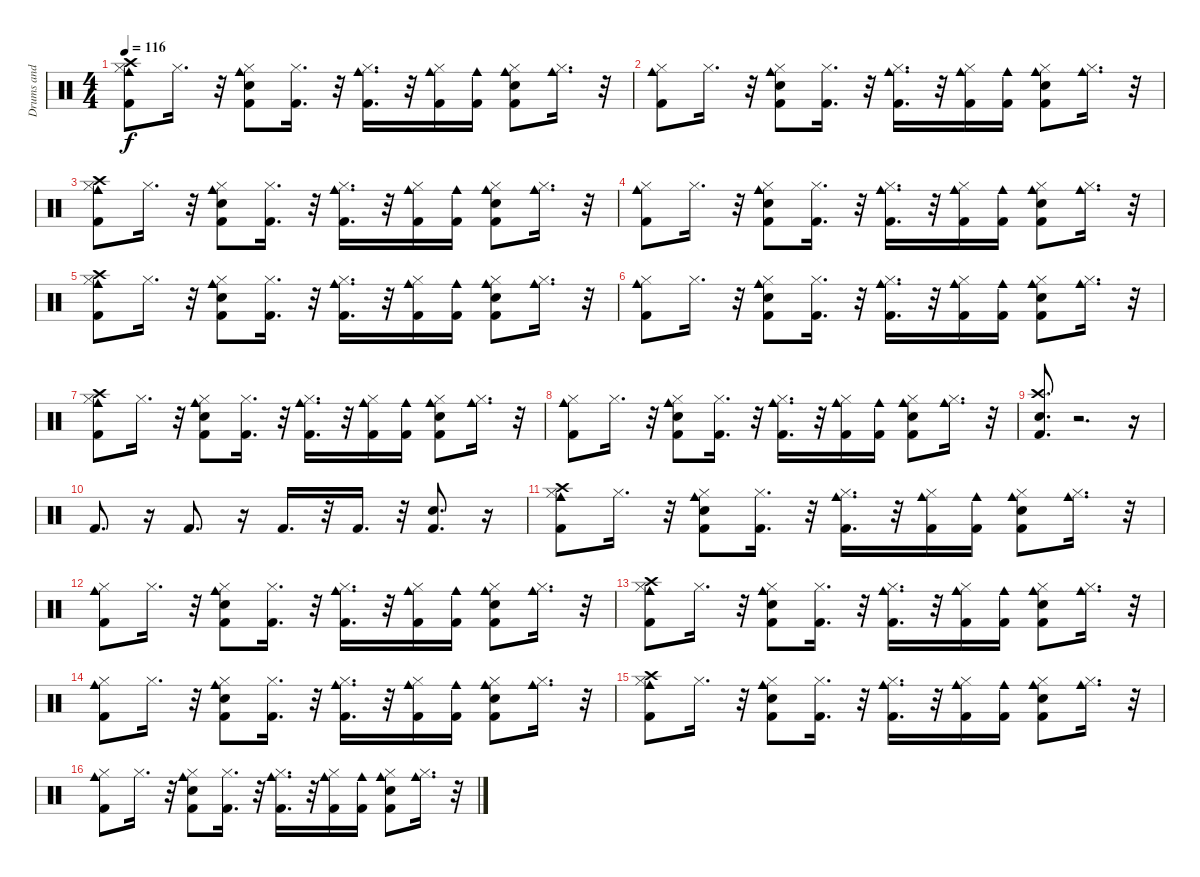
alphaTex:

\track ("Drums and Cowbell" "Drums and ") {instrument percussion}
\staff {score}
\articulation defaults
\ts (4 4)
\tempo 116
\clef neutral
\ks c
("Kick (hit) 2" "Hi-Hat (closed)" "Crash high (hit)" "Cowbell medium (hit)").8{dy f} "Hi-Hat (closed)".16{d} r.32 ("Snare (hit) 2" "Kick (hit) 2" "Hi-Hat (closed)" "Cowbell medium (hit)").8 ("Kick (hit) 2" "Hi-Hat (closed)").16{d} r.32 ("Hi-Hat (closed)" "Kick (hit) 2" "Cowbell medium (hit)").16{d} r.32 ("Kick (hit) 2" "Hi-Hat (closed)" "Cowbell medium (hit)").16 ("Kick (hit) 2" "Cowbell medium (hit)").16 ("Kick (hit) 2" "Snare (hit) 2" "Hi-Hat (closed)" "Cowbell medium (hit)").8 ("Hi-Hat (closed)" "Cowbell medium (hit)").16{d} r.32 |
("Kick (hit) 2" "Hi-Hat (closed)" "Cowbell medium (hit)").8 "Hi-Hat (closed)".16{d} r.32 ("Snare (hit) 2" "Kick (hit) 2" "Hi-Hat (closed)" "Cowbell medium (hit)").8 ("Kick (hit) 2" "Hi-Hat (closed)").16{d} r.32 ("Hi-Hat (closed)" "Kick (hit) 2" "Cowbell medium (hit)").16{d} r.32 ("Kick (hit) 2" "Hi-Hat (closed)" "Cowbell medium (hit)").16 ("Kick (hit) 2" "Cowbell medium (hit)").16 ("Kick (hit) 2" "Snare (hit) 2" "Hi-Hat (closed)" "Cowbell medium (hit)").8 ("Hi-Hat (closed)" "Cowbell medium (hit)").16{d} r.32 |
("Kick (hit) 2" "Hi-Hat (closed)" "Crash high (hit)" "Cowbell medium (hit)").8 "Hi-Hat (closed)".16{d} r.32 ("Snare (hit) 2" "Kick (hit) 2" "Hi-Hat (closed)" "Cowbell medium (hit)").8 ("Kick (hit) 2" "Hi-Hat (closed)").16{d} r.32 ("Hi-Hat (closed)" "Kick (hit) 2" "Cowbell medium (hit)").16{d} r.32 ("Kick (hit) 2" "Hi-Hat (closed)" "Cowbell medium (hit)").16 ("Kick (hit) 2" "Cowbell medium (hit)").16 ("Kick (hit) 2" "Snare (hit) 2" "Hi-Hat (closed)" "Cowbell medium (hit)").8 ("Hi-Hat (closed)" "Cowbell medium (hit)").16{d} r.32 |
("Kick (hit) 2" "Hi-Hat (closed)" "Cowbell medium (hit)").8 "Hi-Hat (closed)".16{d} r.32 ("Snare (hit) 2" "Kick (hit) 2" "Hi-Hat (closed)" "Cowbell medium (hit)").8 ("Kick (hit) 2" "Hi-Hat (closed)").16{d} r.32 ("Hi-Hat (closed)" "Kick (hit) 2" "Cowbell medium (hit)").16{d} r.32 ("Kick (hit) 2" "Hi-Hat (closed)" "Cowbell medium (hit)").16 ("Kick (hit) 2" "Cowbell medium (hit)").16 ("Kick (hit) 2" "Snare (hit) 2" "Hi-Hat (closed)" "Cowbell medium (hit)").8 ("Hi-Hat (closed)" "Cowbell medium (hit)").16{d} r.32 |
("Kick (hit) 2" "Hi-Hat (closed)" "Crash high (hit)" "Cowbell medium (hit)").8 "Hi-Hat (closed)".16{d} r.32 ("Snare (hit) 2" "Kick (hit) 2" "Hi-Hat (closed)" "Cowbell medium (hit)").8 ("Kick (hit) 2" "Hi-Hat (closed)").16{d} r.32 ("Hi-Hat (closed)" "Kick (hit) 2" "Cowbell medium (hit)").16{d} r.32 ("Kick (hit) 2" "Hi-Hat (closed)" "Cowbell medium (hit)").16 ("Kick (hit) 2" "Cowbell medium (hit)").16 ("Kick (hit) 2" "Snare (hit) 2" "Hi-Hat (closed)" "Cowbell medium (hit)").8 ("Hi-Hat (closed)" "Cowbell medium (hit)").16{d} r.32 |
("Kick (hit) 2" "Hi-Hat (closed)" "Cowbell medium (hit)").8 "Hi-Hat (closed)".16{d} r.32 ("Snare (hit) 2" "Kick (hit) 2" "Hi-Hat (closed)" "Cowbell medium (hit)").8 ("Kick (hit) 2" "Hi-Hat (closed)").16{d} r.32 ("Hi-Hat (closed)" "Kick (hit) 2" "Cowbell medium (hit)").16{d} r.32 ("Kick (hit) 2" "Hi-Hat (closed)" "Cowbell medium (hit)").16 ("Kick (hit) 2" "Cowbell medium (hit)").16 ("Kick (hit) 2" "Snare (hit) 2" "Hi-Hat (closed)" "Cowbell medium (hit)").8 ("Hi-Hat (closed)" "Cowbell medium (hit)").16{d} r.32 |
("Kick (hit) 2" "Hi-Hat (closed)" "Cowbell medium (hit)" "Crash high (hit)").8 "Hi-Hat (closed)".16{d} r.32 ("Snare (hit) 2" "Kick (hit) 2" "Hi-Hat (closed)" "Cowbell medium (hit)").8 ("Kick (hit) 2" "Hi-Hat (closed)").16{d} r.32 ("Hi-Hat (closed)" "Kick (hit) 2" "Cowbell medium (hit)").16{d} r.32 ("Kick (hit) 2" "Hi-Hat (closed)" "Cowbell medium (hit)").16 ("Kick (hit) 2" "Cowbell medium (hit)").16 ("Kick (hit) 2" "Snare (hit) 2" "Hi-Hat (closed)" "Cowbell medium (hit)").8 ("Hi-Hat (closed)" "Cowbell medium (hit)").16{d} r.32 |
("Kick (hit) 2" "Hi-Hat (closed)" "Cowbell medium (hit)").8 "Hi-Hat (closed)".16{d} r.32 ("Snare (hit) 2" "Kick (hit) 2" "Hi-Hat (closed)" "Cowbell medium (hit)").8 ("Kick (hit) 2" "Hi-Hat (closed)").16{d} r.32 ("Hi-Hat (closed)" "Kick (hit) 2" "Cowbell medium (hit)").16{d} r.32 ("Kick (hit) 2" "Hi-Hat (closed)" "Cowbell medium (hit)").16 ("Kick (hit) 2" "Cowbell medium (hit)").16 ("Kick (hit) 2" "Snare (hit) 2" "Hi-Hat (closed)" "Cowbell medium (hit)").8 ("Hi-Hat (closed)" "Cowbell medium (hit)").16{d} r.32 |
("Crash high (hit)" "Electric Snare (hit)" "Kick (hit) 2").8{d} r.2{d} r.16 |
"Kick (hit) 2".8{d} r.16 "Kick (hit) 2".8{d} r.16 "Kick (hit) 2".16{d} r.32 "Kick (hit) 2".16{d} r.32 ("Kick (hit) 2" "Electric Snare (hit)").8{d} r.16 |
("Kick (hit) 2" "Hi-Hat (closed)" "Crash high (hit)" "Cowbell medium (hit)").8 "Hi-Hat (closed)".16{d} r.32 ("Snare (hit) 2" "Kick (hit) 2" "Hi-Hat (closed)" "Cowbell medium (hit)").8 ("Kick (hit) 2" "Hi-Hat (closed)").16{d} r.32 ("Hi-Hat (closed)" "Kick (hit) 2" "Cowbell medium (hit)").16{d} r.32 ("Kick (hit) 2" "Hi-Hat (closed)" "Cowbell medium (hit)").16 ("Kick (hit) 2" "Cowbell medium (hit)").16 ("Kick (hit) 2" "Snare (hit) 2" "Hi-Hat (closed)" "Cowbell medium (hit)").8 ("Hi-Hat (closed)" "Cowbell medium (hit)").16{d} r.32 |
("Kick (hit) 2" "Hi-Hat (closed)" "Cowbell medium (hit)").8 "Hi-Hat (closed)".16{d} r.32 ("Snare (hit) 2" "Kick (hit) 2" "Hi-Hat (closed)" "Cowbell medium (hit)").8 ("Kick (hit) 2" "Hi-Hat (closed)").16{d} r.32 ("Hi-Hat (closed)" "Kick (hit) 2" "Cowbell medium (hit)").16{d} r.32 ("Kick (hit) 2" "Hi-Hat (closed)" "Cowbell medium (hit)").16 ("Kick (hit) 2" "Cowbell medium (hit)").16 ("Kick (hit) 2" "Snare (hit) 2" "Hi-Hat (closed)" "Cowbell medium (hit)").8 ("Hi-Hat (closed)" "Cowbell medium (hit)").16{d} r.32 |
("Kick (hit) 2" "Hi-Hat (closed)" "Crash high (hit)" "Cowbell medium (hit)").8 "Hi-Hat (closed)".16{d} r.32 ("Snare (hit) 2" "Kick (hit) 2" "Hi-Hat (closed)" "Cowbell medium (hit)").8 ("Kick (hit) 2" "Hi-Hat (closed)").16{d} r.32 ("Hi-Hat (closed)" "Kick (hit) 2" "Cowbell medium (hit)").16{d} r.32 ("Kick (hit) 2" "Hi-Hat (closed)" "Cowbell medium (hit)").16 ("Kick (hit) 2" "Cowbell medium (hit)").16 ("Kick (hit) 2" "Snare (hit) 2" "Hi-Hat (closed)" "Cowbell medium (hit)").8 ("Hi-Hat (closed)" "Cowbell medium (hit)").16{d} r.32 |
("Kick (hit) 2" "Hi-Hat (closed)" "Cowbell medium (hit)").8 "Hi-Hat (closed)".16{d} r.32 ("Snare (hit) 2" "Kick (hit) 2" "Hi-Hat (closed)" "Cowbell medium (hit)").8 ("Kick (hit) 2" "Hi-Hat (closed)").16{d} r.32 ("Hi-Hat (closed)" "Kick (hit) 2" "Cowbell medium (hit)").16{d} r.32 ("Kick (hit) 2" "Hi-Hat (closed)" "Cowbell medium (hit)").16 ("Kick (hit) 2" "Cowbell medium (hit)").16 ("Kick (hit) 2" "Snare (hit) 2" "Hi-Hat (closed)" "Cowbell medium (hit)").8 ("Hi-Hat (closed)" "Cowbell medium (hit)").16{d} r.32 |
("Kick (hit) 2" "Hi-Hat (closed)" "Cowbell medium (hit)" "Crash high (hit)").8 "Hi-Hat (closed)".16{d} r.32 ("Snare (hit) 2" "Kick (hit) 2" "Hi-Hat (closed)" "Cowbell medium (hit)").8 ("Kick (hit) 2" "Hi-Hat (closed)").16{d} r.32 ("Hi-Hat (closed)" "Kick (hit) 2" "Cowbell medium (hit)").16{d} r.32 ("Kick (hit) 2" "Hi-Hat (closed)" "Cowbell medium (hit)").16 ("Kick (hit) 2" "Cowbell medium (hit)").16 ("Kick (hit) 2" "Snare (hit) 2" "Hi-Hat (closed)" "Cowbell medium (hit)").8 ("Hi-Hat (closed)" "Cowbell medium (hit)").16{d} r.32 |
("Kick (hit) 2" "Hi-Hat (closed)" "Cowbell medium (hit)").8 "Hi-Hat (closed)".16{d} r.32 ("Snare (hit) 2" "Kick (hit) 2" "Hi-Hat (closed)" "Cowbell medium (hit)").8 ("Kick (hit) 2" "Hi-Hat (closed)").16{d} r.32 ("Hi-Hat (closed)" "Kick (hit) 2" "Cowbell medium (hit)").16{d} r.32 ("Kick (hit) 2" "Hi-Hat (closed)" "Cowbell medium (hit)").16 ("Kick (hit) 2" "Cowbell medium (hit)").16 ("Kick (hit) 2" "Snare (hit) 2" "Hi-Hat (closed)" "Cowbell medium (hit)").8 ("Hi-Hat (closed)" "Cowbell medium (hit)").16{d} r.32
